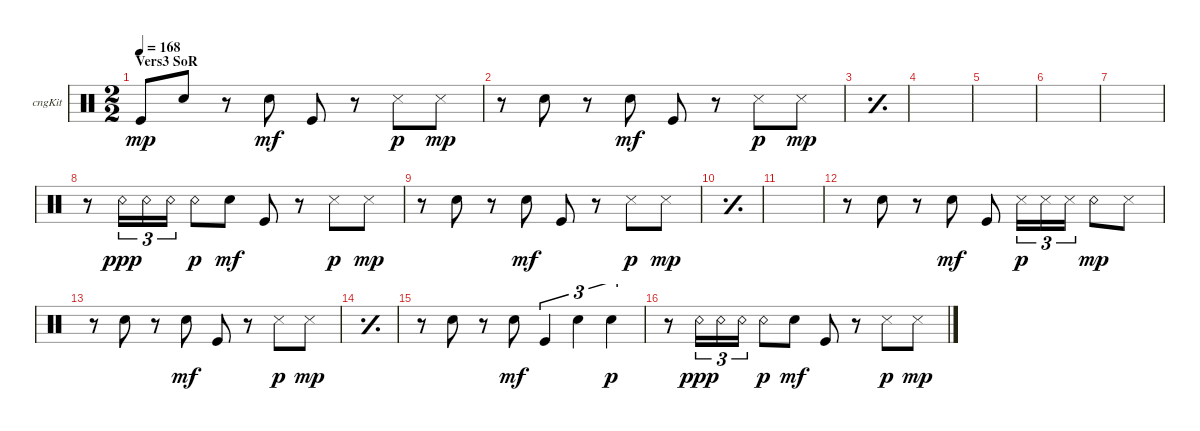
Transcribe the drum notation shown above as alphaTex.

\bracketExtendMode groupsimilarinstruments
\multiTrackTrackNamePolicy hidden
\firstSystemTrackNameOrientation horizontal
\otherSystemsTrackNameOrientation horizontal
\track ("Congas" "cngKit") {instrument percussion}
\staff {score}
\articulation defaults
\ts (2 2)
\section ("" "Vers3 SoR")
\tempo 168
\clef neutral
\ks c "Kick (hit)".8{dy mp} "Snare (hit) 2".8
r.8 "Snare (hit) 2".8{dy mf} "Kick (hit)".8 r.8 "Snare (side stick) 3".8{dy p} "Snare (side stick) 3".8{dy mp} |
r.8 "Snare (hit) 2".8 r.8 "Snare (hit) 2".8{dy mf} "Kick (hit)".8 r.8 "Snare (side stick) 3".8{dy p} "Snare (side stick) 3".8{dy mp} |
\simile simple
|
|
|
|
|
\simile none
r.8 "Snare (rim shot)".16{tu (3 2) dy ppp} "Snare (rim shot)".16{tu (3 2)} "Snare (rim shot)".16{tu (3 2)} "Snare (rim shot)".8{dy p} "Snare (hit) 2".8{dy mf} "Kick (hit)".8 r.8 "Snare (side stick) 3".8{dy p} "Snare (side stick) 3".8{dy mp} |
r.8 "Snare (hit) 2".8 r.8 "Snare (hit) 2".8{dy mf} "Kick (hit)".8 r.8 "Snare (side stick) 3".8{dy p} "Snare (side stick) 3".8{dy mp} |
\simile simple
|
|
\simile none
r.8 "Snare (hit) 2".8 r.8 "Snare (hit) 2".8{dy mf} "Kick (hit)".8 "Snare (side stick) 3".16{tu (3 2) dy p} "Snare (side stick) 3".16{tu (3 2)} "Snare (side stick) 3".16{tu (3 2)} "Snare (rim shot)".8{dy mp} "Snare (side stick) 3".8 |
r.8 "Snare (hit) 2".8 r.8 "Snare (hit) 2".8{dy mf} "Kick (hit)".8 r.8 "Snare (side stick) 3".8{dy p} "Snare (side stick) 3".8{dy mp} |
\simile simple
|
\simile none
r.8 "Snare (hit) 2".8 r.8 "Snare (hit) 2".8{dy mf} "Kick (hit)".4{tu (3 2)} "Snare (hit) 2".4{tu (3 2)} "Snare (hit) 2".4{tu (3 2) dy p} |
r.8 "Snare (rim shot)".16{tu (3 2) dy ppp} "Snare (rim shot)".16{tu (3 2)} "Snare (rim shot)".16{tu (3 2)} "Snare (rim shot)".8{dy p} "Snare (hit) 2".8{dy mf} "Kick (hit)".8 r.8 "Snare (side stick) 3".8{dy p} "Snare (side stick) 3".8{dy mp}
